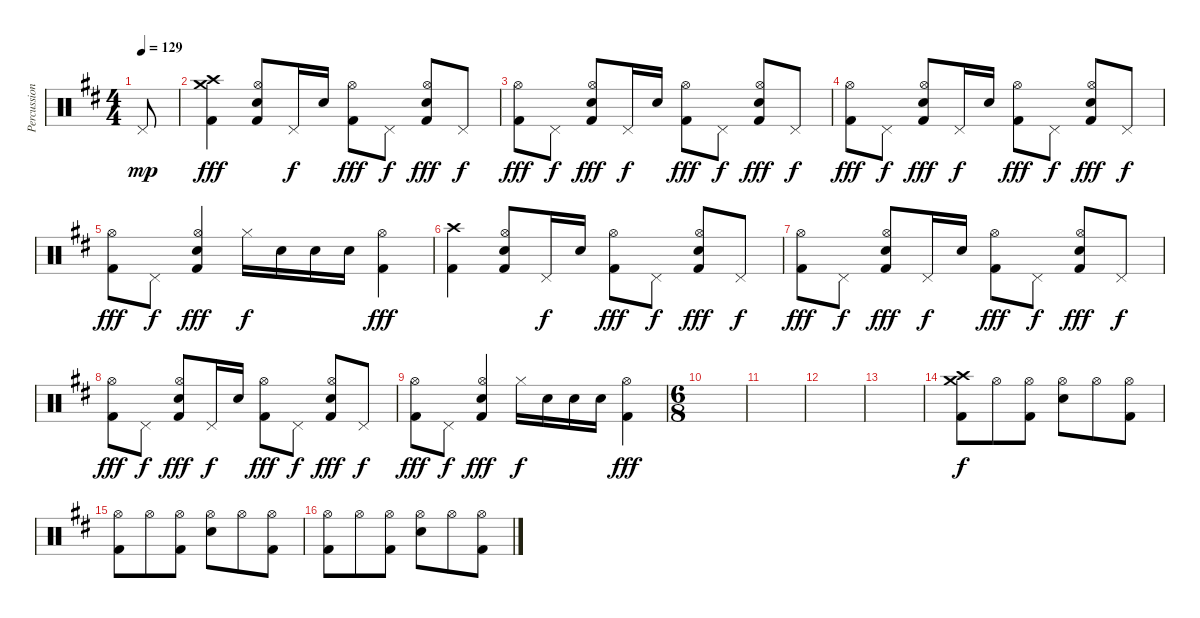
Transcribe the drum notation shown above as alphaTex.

\track ("Percussion" "Percussion") {instrument percussion}
\staff {score}
\articulation defaults
\ts (4 4)
\tempo 129
\clef neutral
\ks d "Pedal Hi-Hat (hit)".8{dy mp}
|
("Crash medium (hit)" "Crash high (hit)" "Kick (hit) 2").4{dy fff} ("Hi-Hat (open)" "Kick (hit) 2" "Electric Snare (hit)").8 "Pedal Hi-Hat (hit)".16{dy f} "Electric Snare (hit)".16 ("Hi-Hat (open)" "Kick (hit) 2").8{dy fff} "Pedal Hi-Hat (hit)".8{dy f} ("Hi-Hat (open)" "Kick (hit) 2" "Electric Snare (hit)").8{dy fff} "Pedal Hi-Hat (hit)".8{dy f} |
("Hi-Hat (open)" "Kick (hit) 2").8{dy fff} "Pedal Hi-Hat (hit)".8{dy f} ("Hi-Hat (open)" "Kick (hit) 2" "Electric Snare (hit)").8{dy fff} "Pedal Hi-Hat (hit)".16{dy f} "Electric Snare (hit)".16 ("Hi-Hat (open)" "Kick (hit) 2").8{dy fff} "Pedal Hi-Hat (hit)".8{dy f} ("Hi-Hat (open)" "Kick (hit) 2" "Electric Snare (hit)").8{dy fff} "Pedal Hi-Hat (hit)".8{dy f} |
("Hi-Hat (open)" "Kick (hit) 2").8{dy fff} "Pedal Hi-Hat (hit)".8{dy f} ("Hi-Hat (open)" "Kick (hit) 2" "Electric Snare (hit)").8{dy fff} "Pedal Hi-Hat (hit)".16{dy f} "Electric Snare (hit)".16 ("Hi-Hat (open)" "Kick (hit) 2").8{dy fff} "Pedal Hi-Hat (hit)".8{dy f} ("Hi-Hat (open)" "Kick (hit) 2" "Electric Snare (hit)").8{dy fff} "Pedal Hi-Hat (hit)".8{dy f} |
("Hi-Hat (open)" "Kick (hit) 2").8{dy fff} "Pedal Hi-Hat (hit)".8{dy f} ("Hi-Hat (open)" "Kick (hit) 2" "Electric Snare (hit)").4{dy fff} "Hi-Hat (closed)".16{dy f} "Electric Snare (hit)".16 "Electric Snare (hit)".16 "Electric Snare (hit)".16 ("Hi-Hat (open)" "Kick (hit) 2").4{dy fff} |
("Crash high (hit)" "Kick (hit) 2").4 ("Hi-Hat (open)" "Kick (hit) 2" "Electric Snare (hit)").8 "Pedal Hi-Hat (hit)".16{dy f} "Electric Snare (hit)".16 ("Hi-Hat (open)" "Kick (hit) 2").8{dy fff} "Pedal Hi-Hat (hit)".8{dy f} ("Hi-Hat (open)" "Kick (hit) 2" "Electric Snare (hit)").8{dy fff} "Pedal Hi-Hat (hit)".8{dy f} |
("Hi-Hat (open)" "Kick (hit) 2").8{dy fff} "Pedal Hi-Hat (hit)".8{dy f} ("Hi-Hat (open)" "Kick (hit) 2" "Electric Snare (hit)").8{dy fff} "Pedal Hi-Hat (hit)".16{dy f} "Electric Snare (hit)".16 ("Hi-Hat (open)" "Kick (hit) 2").8{dy fff} "Pedal Hi-Hat (hit)".8{dy f} ("Hi-Hat (open)" "Kick (hit) 2" "Electric Snare (hit)").8{dy fff} "Pedal Hi-Hat (hit)".8{dy f} |
("Hi-Hat (open)" "Kick (hit) 2").8{dy fff} "Pedal Hi-Hat (hit)".8{dy f} ("Hi-Hat (open)" "Kick (hit) 2" "Electric Snare (hit)").8{dy fff} "Pedal Hi-Hat (hit)".16{dy f} "Electric Snare (hit)".16 ("Hi-Hat (open)" "Kick (hit) 2").8{dy fff} "Pedal Hi-Hat (hit)".8{dy f} ("Hi-Hat (open)" "Kick (hit) 2" "Electric Snare (hit)").8{dy fff} "Pedal Hi-Hat (hit)".8{dy f} |
("Hi-Hat (open)" "Kick (hit) 2").8{dy fff} "Pedal Hi-Hat (hit)".8{dy f} ("Hi-Hat (open)" "Kick (hit) 2" "Electric Snare (hit)").4{dy fff} "Hi-Hat (closed)".16{dy f} "Electric Snare (hit)".16 "Electric Snare (hit)".16 "Electric Snare (hit)".16 ("Hi-Hat (open)" "Kick (hit) 2").4{dy fff} |
\ts (6 8)
|
|
|
|
("Crash medium (hit)" "Crash high (hit)" "Kick (hit) 2").8{dy f volume 16} "Hi-Hat (open)".8 ("Hi-Hat (open)" "Kick (hit) 2").8 ("Hi-Hat (open)" "Electric Snare (hit)").8 "Hi-Hat (open)".8 ("Hi-Hat (open)" "Kick (hit) 2").8 |
("Hi-Hat (open)" "Kick (hit) 2").8 "Hi-Hat (open)".8 ("Hi-Hat (open)" "Kick (hit) 2").8 ("Hi-Hat (open)" "Electric Snare (hit)").8 "Hi-Hat (open)".8 ("Hi-Hat (open)" "Kick (hit) 2").8 |
("Hi-Hat (open)" "Kick (hit) 2").8 "Hi-Hat (open)".8 ("Hi-Hat (open)" "Kick (hit) 2").8 ("Hi-Hat (open)" "Electric Snare (hit)").8 "Hi-Hat (open)".8 ("Hi-Hat (open)" "Kick (hit) 2").8
